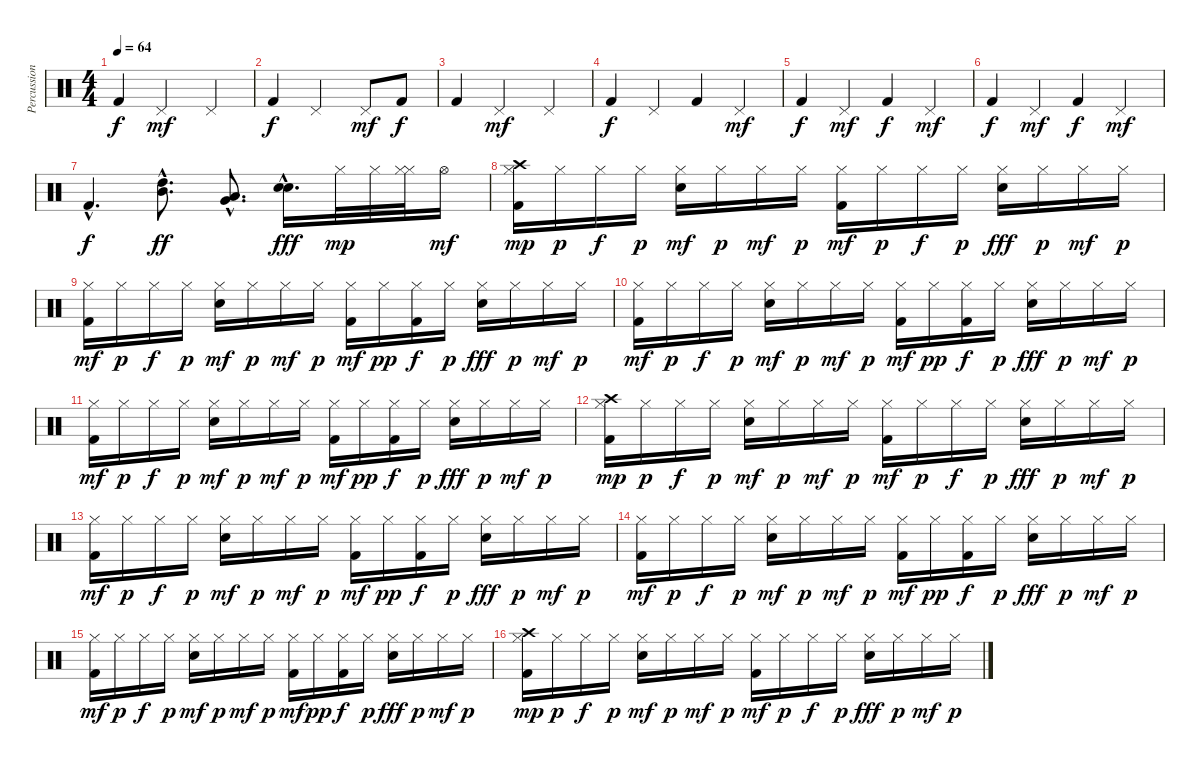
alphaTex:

\track ("Percussioni" "Percussion") {instrument percussion}
\staff {score}
\articulation defaults
\ts (4 4)
\tempo 64
\clef neutral
\ks c "Kick (hit) 2".4{dy f} "Pedal Hi-Hat (hit)".2{dy mf} "Pedal Hi-Hat (hit)".4
|
"Kick (hit) 2".4{dy f} "Pedal Hi-Hat (hit)".2 "Pedal Hi-Hat (hit)".8{dy mf} "Kick (hit) 2".8{dy f} |
"Kick (hit) 2".4 "Pedal Hi-Hat (hit)".2{dy mf} "Pedal Hi-Hat (hit)".4 |
"Kick (hit) 2".4{dy f} "Pedal Hi-Hat (hit)".4 "Kick (hit) 2".4 "Pedal Hi-Hat (hit)".4{dy mf} |
"Kick (hit) 2".4{dy f} "Pedal Hi-Hat (hit)".4{dy mf} "Kick (hit) 2".4{dy f} "Pedal Hi-Hat (hit)".4{dy mf} |
"Kick (hit) 2".4{dy f} "Pedal Hi-Hat (hit)".4{dy mf} "Kick (hit) 2".4{dy f} "Pedal Hi-Hat (hit)".4{dy mf} |
"Kick (hit) 2"{hac}.4{d dy f} ("Mid Tom (hit)"{hac} "High Tom (hit)"{hac}).8{d dy ff} ("Low Floor Tom (hit)"{hac} "Very Low Tom (hit)"{hac}).8{d} ("Snare (hit) 2"{hac} "Electric Snare (hit)"{hac}).16{d dy fff} "Hi-Hat (closed)".32{dy mp} "Hi-Hat (closed)".32 ("Hi-Hat (closed)" "Hi-Hat (closed)").32 "Hi-Hat (open)".16{dy mf} |
("Kick (hit) 2" "Hi-Hat (closed)" "Crash high (hit)").16{dy mp} "Hi-Hat (closed)".16{dy p} "Hi-Hat (closed)".16{dy f} "Hi-Hat (closed)".16{dy p} ("Electric Snare (hit)" "Hi-Hat (closed)").16{dy mf} "Hi-Hat (closed)".16{dy p} "Hi-Hat (closed)".16{dy mf} "Hi-Hat (closed)".16{dy p} ("Kick (hit) 2" "Hi-Hat (closed)").16{dy mf} "Hi-Hat (closed)".16{dy p} "Hi-Hat (closed)".16{dy f} "Hi-Hat (closed)".16{dy p} ("Electric Snare (hit)" "Hi-Hat (closed)").16{dy fff} "Hi-Hat (closed)".16{dy p} "Hi-Hat (closed)".16{dy mf} "Hi-Hat (closed)".16{dy p} |
("Kick (hit) 2" "Hi-Hat (closed)").16{dy mf} "Hi-Hat (closed)".16{dy p} "Hi-Hat (closed)".16{dy f} "Hi-Hat (closed)".16{dy p} ("Electric Snare (hit)" "Hi-Hat (closed)").16{dy mf} "Hi-Hat (closed)".16{dy p} "Hi-Hat (closed)".16{dy mf} "Hi-Hat (closed)".16{dy p} ("Kick (hit) 2" "Hi-Hat (closed)").16{dy mf} "Hi-Hat (closed)".16{dy pp} ("Kick (hit) 2" "Hi-Hat (closed)").16{dy f} "Hi-Hat (closed)".16{dy p} ("Electric Snare (hit)" "Hi-Hat (closed)").16{dy fff} "Hi-Hat (closed)".16{dy p} "Hi-Hat (closed)".16{dy mf} "Hi-Hat (closed)".16{dy p} |
("Kick (hit) 2" "Hi-Hat (closed)").16{dy mf} "Hi-Hat (closed)".16{dy p} "Hi-Hat (closed)".16{dy f} "Hi-Hat (closed)".16{dy p} ("Electric Snare (hit)" "Hi-Hat (closed)").16{dy mf} "Hi-Hat (closed)".16{dy p} "Hi-Hat (closed)".16{dy mf} "Hi-Hat (closed)".16{dy p} ("Kick (hit) 2" "Hi-Hat (closed)").16{dy mf} "Hi-Hat (closed)".16{dy pp} ("Kick (hit) 2" "Hi-Hat (closed)").16{dy f} "Hi-Hat (closed)".16{dy p} ("Electric Snare (hit)" "Hi-Hat (closed)").16{dy fff} "Hi-Hat (closed)".16{dy p} "Hi-Hat (closed)".16{dy mf} "Hi-Hat (closed)".16{dy p} |
("Kick (hit) 2" "Hi-Hat (closed)").16{dy mf} "Hi-Hat (closed)".16{dy p} "Hi-Hat (closed)".16{dy f} "Hi-Hat (closed)".16{dy p} ("Electric Snare (hit)" "Hi-Hat (closed)").16{dy mf} "Hi-Hat (closed)".16{dy p} "Hi-Hat (closed)".16{dy mf} "Hi-Hat (closed)".16{dy p} ("Kick (hit) 2" "Hi-Hat (closed)").16{dy mf} "Hi-Hat (closed)".16{dy pp} ("Kick (hit) 2" "Hi-Hat (closed)").16{dy f} "Hi-Hat (closed)".16{dy p} ("Electric Snare (hit)" "Hi-Hat (closed)").16{dy fff} "Hi-Hat (closed)".16{dy p} "Hi-Hat (closed)".16{dy mf} "Hi-Hat (closed)".16{dy p} |
("Kick (hit) 2" "Hi-Hat (closed)" "Crash high (hit)").16{dy mp} "Hi-Hat (closed)".16{dy p} "Hi-Hat (closed)".16{dy f} "Hi-Hat (closed)".16{dy p} ("Electric Snare (hit)" "Hi-Hat (closed)").16{dy mf} "Hi-Hat (closed)".16{dy p} "Hi-Hat (closed)".16{dy mf} "Hi-Hat (closed)".16{dy p} ("Kick (hit) 2" "Hi-Hat (closed)").16{dy mf} "Hi-Hat (closed)".16{dy p} "Hi-Hat (closed)".16{dy f} "Hi-Hat (closed)".16{dy p} ("Electric Snare (hit)" "Hi-Hat (closed)").16{dy fff} "Hi-Hat (closed)".16{dy p} "Hi-Hat (closed)".16{dy mf} "Hi-Hat (closed)".16{dy p} |
("Kick (hit) 2" "Hi-Hat (closed)").16{dy mf} "Hi-Hat (closed)".16{dy p} "Hi-Hat (closed)".16{dy f} "Hi-Hat (closed)".16{dy p} ("Electric Snare (hit)" "Hi-Hat (closed)").16{dy mf} "Hi-Hat (closed)".16{dy p} "Hi-Hat (closed)".16{dy mf} "Hi-Hat (closed)".16{dy p} ("Kick (hit) 2" "Hi-Hat (closed)").16{dy mf} "Hi-Hat (closed)".16{dy pp} ("Kick (hit) 2" "Hi-Hat (closed)").16{dy f} "Hi-Hat (closed)".16{dy p} ("Electric Snare (hit)" "Hi-Hat (closed)").16{dy fff} "Hi-Hat (closed)".16{dy p} "Hi-Hat (closed)".16{dy mf} "Hi-Hat (closed)".16{dy p} |
("Kick (hit) 2" "Hi-Hat (closed)").16{dy mf} "Hi-Hat (closed)".16{dy p} "Hi-Hat (closed)".16{dy f} "Hi-Hat (closed)".16{dy p} ("Electric Snare (hit)" "Hi-Hat (closed)").16{dy mf} "Hi-Hat (closed)".16{dy p} "Hi-Hat (closed)".16{dy mf} "Hi-Hat (closed)".16{dy p} ("Kick (hit) 2" "Hi-Hat (closed)").16{dy mf} "Hi-Hat (closed)".16{dy pp} ("Kick (hit) 2" "Hi-Hat (closed)").16{dy f} "Hi-Hat (closed)".16{dy p} ("Electric Snare (hit)" "Hi-Hat (closed)").16{dy fff} "Hi-Hat (closed)".16{dy p} "Hi-Hat (closed)".16{dy mf} "Hi-Hat (closed)".16{dy p} |
("Kick (hit) 2" "Hi-Hat (closed)").16{dy mf} "Hi-Hat (closed)".16{dy p} "Hi-Hat (closed)".16{dy f} "Hi-Hat (closed)".16{dy p} ("Electric Snare (hit)" "Hi-Hat (closed)").16{dy mf} "Hi-Hat (closed)".16{dy p} "Hi-Hat (closed)".16{dy mf} "Hi-Hat (closed)".16{dy p} ("Kick (hit) 2" "Hi-Hat (closed)").16{dy mf} "Hi-Hat (closed)".16{dy pp} ("Kick (hit) 2" "Hi-Hat (closed)").16{dy f} "Hi-Hat (closed)".16{dy p} ("Electric Snare (hit)" "Hi-Hat (closed)").16{dy fff} "Hi-Hat (closed)".16{dy p} "Hi-Hat (closed)".16{dy mf} "Hi-Hat (closed)".16{dy p} |
("Kick (hit) 2" "Hi-Hat (closed)" "Crash high (hit)").16{dy mp} "Hi-Hat (closed)".16{dy p} "Hi-Hat (closed)".16{dy f} "Hi-Hat (closed)".16{dy p} ("Electric Snare (hit)" "Hi-Hat (closed)").16{dy mf} "Hi-Hat (closed)".16{dy p} "Hi-Hat (closed)".16{dy mf} "Hi-Hat (closed)".16{dy p} ("Kick (hit) 2" "Hi-Hat (closed)").16{dy mf} "Hi-Hat (closed)".16{dy p} "Hi-Hat (closed)".16{dy f} "Hi-Hat (closed)".16{dy p} ("Electric Snare (hit)" "Hi-Hat (closed)").16{dy fff} "Hi-Hat (closed)".16{dy p} "Hi-Hat (closed)".16{dy mf} "Hi-Hat (closed)".16{dy p}
